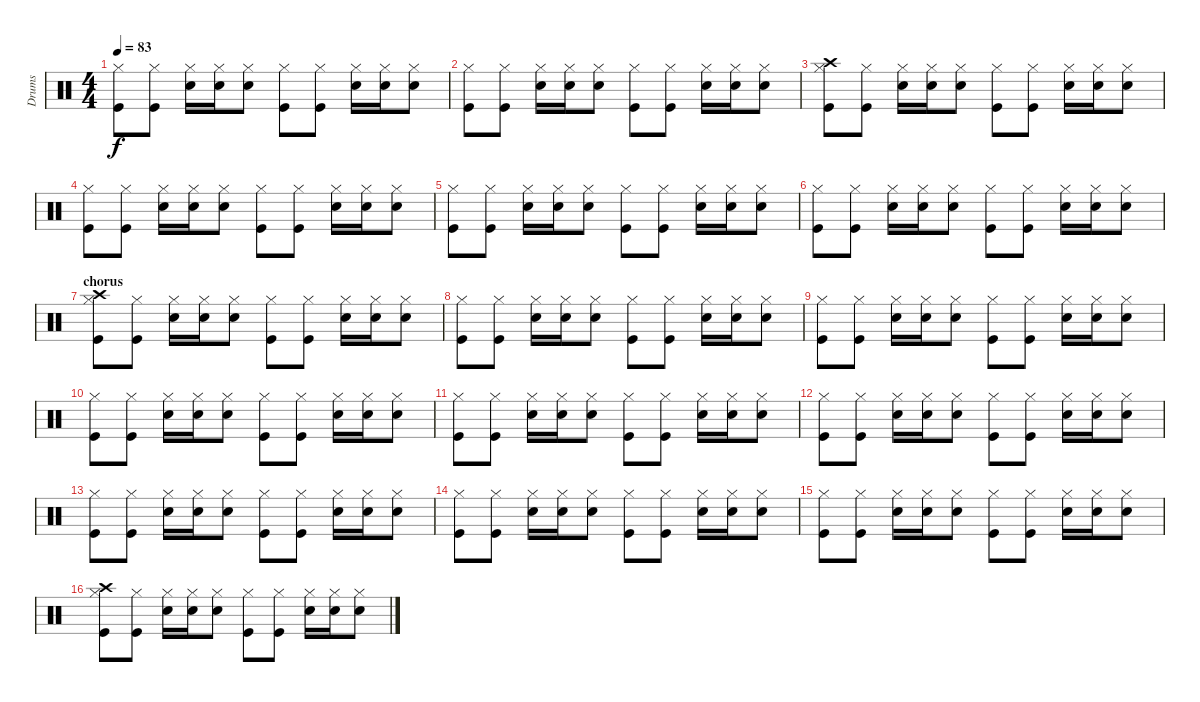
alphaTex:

\track ("Drums" "Drums") {instrument percussion}
\staff {score}
\articulation defaults
\ts (4 4)
\tempo 83
\clef neutral
\ks c
("Hi-Hat (closed)" "Kick (hit)").8{dy f} ("Hi-Hat (closed)" "Kick (hit)").8 ("Hi-Hat (closed)" "Electric Snare (hit)").16 ("Hi-Hat (closed)" "Snare (hit) 2").16 ("Hi-Hat (closed)" "Snare (hit) 2").8 ("Hi-Hat (closed)" "Kick (hit)").8 ("Hi-Hat (closed)" "Kick (hit)").8 ("Hi-Hat (closed)" "Electric Snare (hit)").16 ("Hi-Hat (closed)" "Snare (hit) 2").16 ("Hi-Hat (closed)" "Snare (hit) 2").8 |
("Hi-Hat (closed)" "Kick (hit)").8 ("Hi-Hat (closed)" "Kick (hit)").8 ("Hi-Hat (closed)" "Electric Snare (hit)").16 ("Hi-Hat (closed)" "Snare (hit) 2").16 ("Hi-Hat (closed)" "Snare (hit) 2").8 ("Hi-Hat (closed)" "Kick (hit)").8 ("Hi-Hat (closed)" "Kick (hit)").8 ("Hi-Hat (closed)" "Electric Snare (hit)").16 ("Hi-Hat (closed)" "Snare (hit) 2").16 ("Hi-Hat (closed)" "Snare (hit) 2").8 |
("Crash high (hit)" "Hi-Hat (closed)" "Kick (hit)").8 ("Hi-Hat (closed)" "Kick (hit)").8 ("Hi-Hat (closed)" "Electric Snare (hit)").16 ("Hi-Hat (closed)" "Snare (hit) 2").16 ("Hi-Hat (closed)" "Snare (hit) 2").8 ("Hi-Hat (closed)" "Kick (hit)").8 ("Hi-Hat (closed)" "Kick (hit)").8 ("Hi-Hat (closed)" "Electric Snare (hit)").16 ("Hi-Hat (closed)" "Snare (hit) 2").16 ("Hi-Hat (closed)" "Snare (hit) 2").8 |
("Hi-Hat (closed)" "Kick (hit)").8 ("Hi-Hat (closed)" "Kick (hit)").8 ("Hi-Hat (closed)" "Electric Snare (hit)").16 ("Hi-Hat (closed)" "Snare (hit) 2").16 ("Hi-Hat (closed)" "Snare (hit) 2").8 ("Hi-Hat (closed)" "Kick (hit)").8 ("Hi-Hat (closed)" "Kick (hit)").8 ("Hi-Hat (closed)" "Electric Snare (hit)").16 ("Hi-Hat (closed)" "Snare (hit) 2").16 ("Hi-Hat (closed)" "Snare (hit) 2").8 |
("Hi-Hat (closed)" "Kick (hit)").8 ("Hi-Hat (closed)" "Kick (hit)").8 ("Hi-Hat (closed)" "Electric Snare (hit)").16 ("Hi-Hat (closed)" "Snare (hit) 2").16 ("Hi-Hat (closed)" "Snare (hit) 2").8 ("Hi-Hat (closed)" "Kick (hit)").8 ("Hi-Hat (closed)" "Kick (hit)").8 ("Hi-Hat (closed)" "Electric Snare (hit)").16 ("Hi-Hat (closed)" "Snare (hit) 2").16 ("Hi-Hat (closed)" "Snare (hit) 2").8 |
("Hi-Hat (closed)" "Kick (hit)").8 ("Hi-Hat (closed)" "Kick (hit)").8 ("Hi-Hat (closed)" "Electric Snare (hit)").16 ("Hi-Hat (closed)" "Snare (hit) 2").16 ("Hi-Hat (closed)" "Snare (hit) 2").8 ("Hi-Hat (closed)" "Kick (hit)").8 ("Hi-Hat (closed)" "Kick (hit)").8 ("Hi-Hat (closed)" "Electric Snare (hit)").16 ("Hi-Hat (closed)" "Snare (hit) 2").16 ("Hi-Hat (closed)" "Snare (hit) 2").8 |
\section ("" "chorus")
("Crash high (hit)" "Hi-Hat (closed)" "Kick (hit)").8 ("Hi-Hat (closed)" "Kick (hit)").8 ("Hi-Hat (closed)" "Electric Snare (hit)").16 ("Hi-Hat (closed)" "Snare (hit) 2").16 ("Hi-Hat (closed)" "Snare (hit) 2").8 ("Hi-Hat (closed)" "Kick (hit)").8 ("Hi-Hat (closed)" "Kick (hit)").8 ("Hi-Hat (closed)" "Electric Snare (hit)").16 ("Hi-Hat (closed)" "Snare (hit) 2").16 ("Hi-Hat (closed)" "Snare (hit) 2").8 |
("Hi-Hat (closed)" "Kick (hit)").8 ("Hi-Hat (closed)" "Kick (hit)").8 ("Hi-Hat (closed)" "Electric Snare (hit)").16 ("Hi-Hat (closed)" "Snare (hit) 2").16 ("Hi-Hat (closed)" "Snare (hit) 2").8 ("Hi-Hat (closed)" "Kick (hit)").8 ("Hi-Hat (closed)" "Kick (hit)").8 ("Hi-Hat (closed)" "Electric Snare (hit)").16 ("Hi-Hat (closed)" "Snare (hit) 2").16 ("Hi-Hat (closed)" "Snare (hit) 2").8 |
("Hi-Hat (closed)" "Kick (hit)").8 ("Hi-Hat (closed)" "Kick (hit)").8 ("Hi-Hat (closed)" "Electric Snare (hit)").16 ("Hi-Hat (closed)" "Snare (hit) 2").16 ("Hi-Hat (closed)" "Snare (hit) 2").8 ("Hi-Hat (closed)" "Kick (hit)").8 ("Hi-Hat (closed)" "Kick (hit)").8 ("Hi-Hat (closed)" "Electric Snare (hit)").16 ("Hi-Hat (closed)" "Snare (hit) 2").16 ("Hi-Hat (closed)" "Snare (hit) 2").8 |
("Hi-Hat (closed)" "Kick (hit)").8 ("Hi-Hat (closed)" "Kick (hit)").8 ("Hi-Hat (closed)" "Electric Snare (hit)").16 ("Hi-Hat (closed)" "Snare (hit) 2").16 ("Hi-Hat (closed)" "Snare (hit) 2").8 ("Hi-Hat (closed)" "Kick (hit)").8 ("Hi-Hat (closed)" "Kick (hit)").8 ("Hi-Hat (closed)" "Electric Snare (hit)").16 ("Hi-Hat (closed)" "Snare (hit) 2").16 ("Hi-Hat (closed)" "Snare (hit) 2").8 |
("Hi-Hat (closed)" "Kick (hit)").8 ("Hi-Hat (closed)" "Kick (hit)").8 ("Hi-Hat (closed)" "Electric Snare (hit)").16 ("Hi-Hat (closed)" "Snare (hit) 2").16 ("Hi-Hat (closed)" "Snare (hit) 2").8 ("Hi-Hat (closed)" "Kick (hit)").8 ("Hi-Hat (closed)" "Kick (hit)").8 ("Hi-Hat (closed)" "Electric Snare (hit)").16 ("Hi-Hat (closed)" "Snare (hit) 2").16 ("Hi-Hat (closed)" "Snare (hit) 2").8 |
("Hi-Hat (closed)" "Kick (hit)").8 ("Hi-Hat (closed)" "Kick (hit)").8 ("Hi-Hat (closed)" "Electric Snare (hit)").16 ("Hi-Hat (closed)" "Snare (hit) 2").16 ("Hi-Hat (closed)" "Snare (hit) 2").8 ("Hi-Hat (closed)" "Kick (hit)").8 ("Hi-Hat (closed)" "Kick (hit)").8 ("Hi-Hat (closed)" "Electric Snare (hit)").16 ("Hi-Hat (closed)" "Snare (hit) 2").16 ("Hi-Hat (closed)" "Snare (hit) 2").8 |
("Hi-Hat (closed)" "Kick (hit)").8 ("Hi-Hat (closed)" "Kick (hit)").8 ("Hi-Hat (closed)" "Electric Snare (hit)").16 ("Hi-Hat (closed)" "Snare (hit) 2").16 ("Hi-Hat (closed)" "Snare (hit) 2").8 ("Hi-Hat (closed)" "Kick (hit)").8 ("Hi-Hat (closed)" "Kick (hit)").8 ("Hi-Hat (closed)" "Electric Snare (hit)").16 ("Hi-Hat (closed)" "Snare (hit) 2").16 ("Hi-Hat (closed)" "Snare (hit) 2").8 |
("Hi-Hat (closed)" "Kick (hit)").8 ("Hi-Hat (closed)" "Kick (hit)").8 ("Hi-Hat (closed)" "Electric Snare (hit)").16 ("Hi-Hat (closed)" "Snare (hit) 2").16 ("Hi-Hat (closed)" "Snare (hit) 2").8 ("Hi-Hat (closed)" "Kick (hit)").8 ("Hi-Hat (closed)" "Kick (hit)").8 ("Hi-Hat (closed)" "Electric Snare (hit)").16 ("Hi-Hat (closed)" "Snare (hit) 2").16 ("Hi-Hat (closed)" "Snare (hit) 2").8 |
("Hi-Hat (closed)" "Kick (hit)").8 ("Hi-Hat (closed)" "Kick (hit)").8 ("Hi-Hat (closed)" "Electric Snare (hit)").16 ("Hi-Hat (closed)" "Snare (hit) 2").16 ("Hi-Hat (closed)" "Snare (hit) 2").8 ("Hi-Hat (closed)" "Kick (hit)").8 ("Hi-Hat (closed)" "Kick (hit)").8 ("Hi-Hat (closed)" "Electric Snare (hit)").16 ("Hi-Hat (closed)" "Snare (hit) 2").16 ("Hi-Hat (closed)" "Snare (hit) 2").8 |
("Crash high (hit)" "Hi-Hat (closed)" "Kick (hit)").8 ("Hi-Hat (closed)" "Kick (hit)").8 ("Hi-Hat (closed)" "Electric Snare (hit)").16 ("Hi-Hat (closed)" "Snare (hit) 2").16 ("Hi-Hat (closed)" "Snare (hit) 2").8 ("Hi-Hat (closed)" "Kick (hit)").8 ("Hi-Hat (closed)" "Kick (hit)").8 ("Hi-Hat (closed)" "Electric Snare (hit)").16 ("Hi-Hat (closed)" "Snare (hit) 2").16 ("Hi-Hat (closed)" "Snare (hit) 2").8
